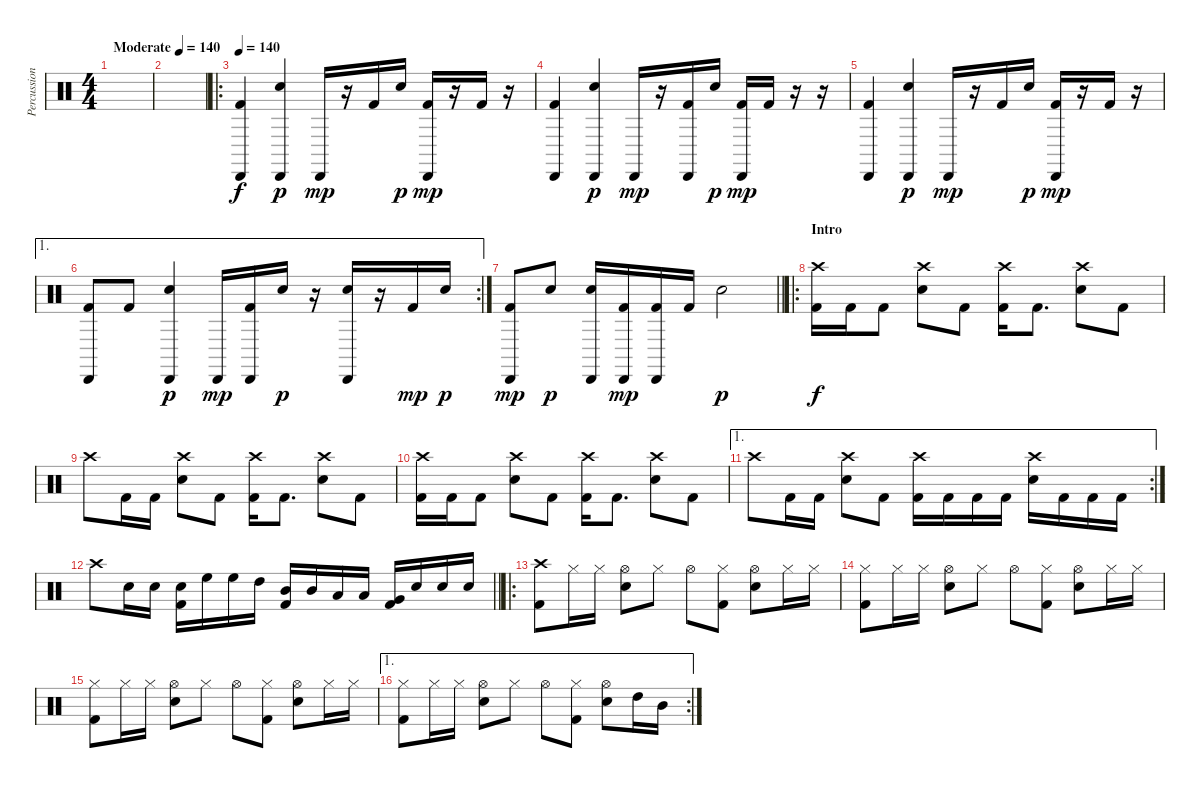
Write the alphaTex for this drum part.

\track ("Percussions" "Percussion") {instrument percussion}
\staff {score}
\articulation defaults
\ts (4 4)
\tempo (140 "Moderate")
\tempo 120
\tempo (140 "Moderate")
\clef neutral
\ks c
|
|
\ro
\tempo 140
("Cabasa (hit)" "Kick (hit) 2").4 ("Cabasa (hit)" "Snare (hit) 2").4{dy p} "Cabasa (hit)".16{dy mp} r.16 "Kick (hit) 2".16 "Snare (hit) 2".16{dy p} ("Cabasa (hit)" "Kick (hit) 2").16{dy mp} r.16 "Kick (hit) 2".16 r.16 |
("Cabasa (hit)" "Kick (hit) 2").4 ("Cabasa (hit)" "Snare (hit) 2").4{dy p} "Cabasa (hit)".16{dy mp} r.16 ("Cabasa (hit)" "Kick (hit) 2").16 "Snare (hit) 2".16{dy p} ("Cabasa (hit)" "Kick (hit) 2").16{dy mp} "Kick (hit) 2".16 r.16 r.16 |
("Cabasa (hit)" "Kick (hit) 2").4 ("Cabasa (hit)" "Snare (hit) 2").4{dy p} "Cabasa (hit)".16{dy mp} r.16 "Kick (hit) 2".16 "Snare (hit) 2".16{dy p} ("Cabasa (hit)" "Kick (hit) 2").16{dy mp} r.16 "Kick (hit) 2".16 r.16 |
\ae 1
\rc 2
("Cabasa (hit)" "Kick (hit) 2").8 "Kick (hit) 2".8 ("Cabasa (hit)" "Snare (hit) 2").4{dy p} "Cabasa (hit)".16{dy mp} ("Cabasa (hit)" "Kick (hit) 2").16 "Snare (hit) 2".16{dy p} r.16 ("Cabasa (hit)" "Snare (hit) 2").16 r.16 "Kick (hit) 2".16{dy mp} "Snare (hit) 2".16{dy p} |
\barLineRight lightlight
("Cabasa (hit)" "Kick (hit) 2").8{dy mp} "Snare (hit) 2".8{dy p} ("Cabasa (hit)" "Snare (hit) 2").16 ("Cabasa (hit)" "Kick (hit) 2").16{dy mp} ("Cabasa (hit)" "Kick (hit) 2").16 "Kick (hit) 2".16 "Snare (hit) 2".2{dy p} |
\ro
\section ("" "Intro")
("Crash high (hit)" "Kick (hit) 2").16{dy f} "Kick (hit) 2".16 "Kick (hit) 2".8 ("Crash high (hit)" "Snare (hit) 2").8 "Kick (hit) 2".8 ("Crash high (hit)" "Kick (hit) 2").16 "Kick (hit) 2".8{d} ("Crash high (hit)" "Snare (hit) 2").8 "Kick (hit) 2".8 |
"Crash high (hit)".8 "Kick (hit) 2".16 "Kick (hit) 2".16 ("Crash high (hit)" "Snare (hit) 2").8 "Kick (hit) 2".8 ("Crash high (hit)" "Kick (hit) 2").16 "Kick (hit) 2".8{d} ("Crash high (hit)" "Snare (hit) 2").8 "Kick (hit) 2".8 |
("Crash high (hit)" "Kick (hit) 2").16 "Kick (hit) 2".16 "Kick (hit) 2".8 ("Crash high (hit)" "Snare (hit) 2").8 "Kick (hit) 2".8 ("Crash high (hit)" "Kick (hit) 2").16 "Kick (hit) 2".8{d} ("Crash high (hit)" "Snare (hit) 2").8 "Kick (hit) 2".8 |
\ae 1
\rc 2 "Crash high (hit)".8 "Kick (hit) 2".16 "Kick (hit) 2".16
("Crash high (hit)" "Snare (hit) 2").8 "Kick (hit) 2".8 ("Crash high (hit)" "Kick (hit) 2").16 "Kick (hit) 2".16 "Kick (hit) 2".16 "Kick (hit) 2".16 ("Crash high (hit)" "Snare (hit) 2").16 "Kick (hit) 2".16 "Kick (hit) 2".16 "Kick (hit) 2".16 |
\barLineRight lightlight "Crash high (hit)".8 "Snare (hit) 2".16 "Snare (hit) 2".16
("Snare (hit) 2" "Kick (hit) 2").16 "High Floor Tom (hit)".16 "High Floor Tom (hit)".16 "High Tom (hit)".16 ("Mid Tom (hit)" "Kick (hit) 2").16 "Mid Tom (hit)".16 "Low Tom (hit)".16 "Low Tom (hit)".16 ("Very Low Tom (hit)" "Kick (hit) 2").16 "Snare (hit) 2".16 "Snare (hit) 2".16 "Snare (hit) 2".16 |
\ro
\section ("" "")
("Crash high (hit)" "Kick (hit) 2").8 "Hi-Hat (closed)".16 "Hi-Hat (closed)".16 ("Hi-Hat (open)" "Snare (hit) 2").8 "Hi-Hat (closed)".8 "Hi-Hat (open)".8 ("Hi-Hat (closed)" "Kick (hit) 2").8 ("Hi-Hat (open)" "Snare (hit) 2").8 "Hi-Hat (closed)".16 "Hi-Hat (closed)".16 |
("Hi-Hat (closed)" "Kick (hit) 2").8 "Hi-Hat (closed)".16 "Hi-Hat (closed)".16 ("Hi-Hat (open)" "Snare (hit) 2").8 "Hi-Hat (closed)".8 "Hi-Hat (open)".8 ("Hi-Hat (closed)" "Kick (hit) 2").8 ("Hi-Hat (open)" "Snare (hit) 2").8 "Hi-Hat (closed)".16 "Hi-Hat (closed)".16 |
("Hi-Hat (closed)" "Kick (hit) 2").8 "Hi-Hat (closed)".16 "Hi-Hat (closed)".16 ("Hi-Hat (open)" "Snare (hit) 2").8 "Hi-Hat (closed)".8 "Hi-Hat (open)".8 ("Hi-Hat (closed)" "Kick (hit) 2").8 ("Hi-Hat (open)" "Snare (hit) 2").8 "Hi-Hat (closed)".16 "Hi-Hat (closed)".16 |
\ae 1
\rc 2
("Hi-Hat (closed)" "Kick (hit) 2").8 "Hi-Hat (closed)".16 "Hi-Hat (closed)".16 ("Hi-Hat (open)" "Snare (hit) 2").8 "Hi-Hat (closed)".8 "Hi-Hat (open)".8 ("Hi-Hat (closed)" "Kick (hit) 2").8 ("Hi-Hat (open)" "Snare (hit) 2").8 "High Tom (hit)".16 "Mid Tom (hit)".16
